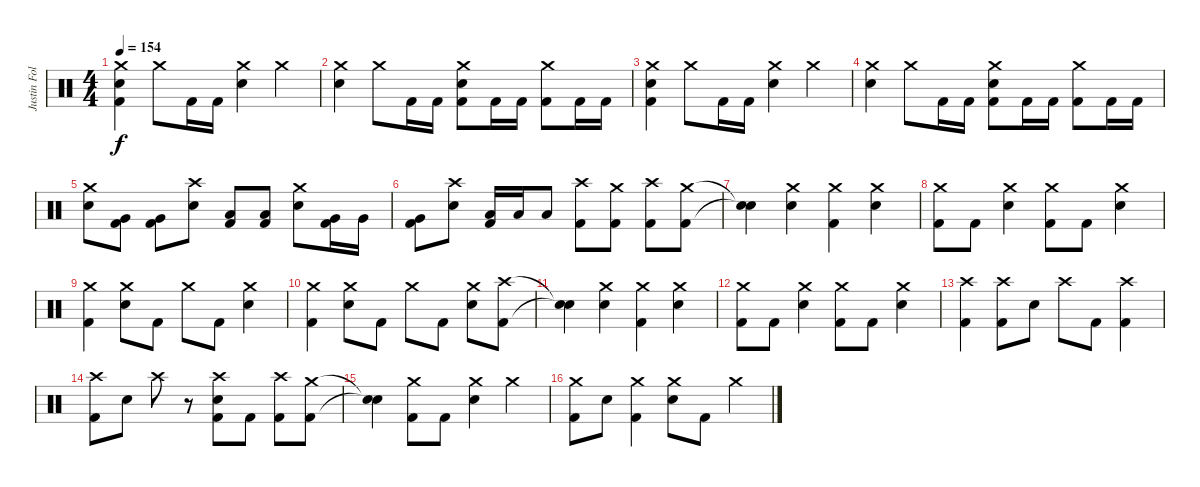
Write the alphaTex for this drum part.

\track ("Justin Foley" "Justin Fol") {instrument percussion}
\staff {score}
\articulation defaults
\ts (4 4)
\tempo 154
\clef neutral
\ks c
("Crash medium (hit)" "Electric Snare (hit)" "Kick (hit) 2").4{dy f} "Crash medium (hit)".8 "Kick (hit) 2".16 "Kick (hit) 2".16 ("Crash medium (hit)" "Electric Snare (hit)").4 "Crash medium (hit)".4 |
("Crash medium (hit)" "Electric Snare (hit)").4 "Crash medium (hit)".8 "Kick (hit) 2".16 "Kick (hit) 2".16 ("Crash medium (hit)" "Electric Snare (hit)" "Kick (hit) 2").8 "Kick (hit) 2".16 "Kick (hit) 2".16 ("Crash medium (hit)" "Kick (hit) 2").8 "Kick (hit) 2".16 "Kick (hit) 2".16 |
("Crash medium (hit)" "Electric Snare (hit)" "Kick (hit) 2").4 "Crash medium (hit)".8 "Kick (hit) 2".16 "Kick (hit) 2".16 ("Crash medium (hit)" "Electric Snare (hit)").4 "Crash medium (hit)".4 |
("Crash medium (hit)" "Electric Snare (hit)").4 "Crash medium (hit)".8 "Kick (hit) 2".16 "Kick (hit) 2".16 ("Crash medium (hit)" "Electric Snare (hit)" "Kick (hit) 2").8 "Kick (hit) 2".16 "Kick (hit) 2".16 ("Crash medium (hit)" "Kick (hit) 2").8 "Kick (hit) 2".16 "Kick (hit) 2".16 |
("Crash medium (hit)" "Electric Snare (hit)").8 ("Very Low Tom (hit)" "Kick (hit) 2").8 ("Very Low Tom (hit)" "Kick (hit) 2").8 ("Crash high (hit)" "Electric Snare (hit)").8 ("Low Floor Tom (hit)" "Kick (hit) 2").8 ("Low Floor Tom (hit)" "Kick (hit) 2").8 ("Crash medium (hit)" "Electric Snare (hit)").8 ("Very Low Tom (hit)" "Kick (hit) 2").16 "Very Low Tom (hit)".16 |
("Very Low Tom (hit)" "Kick (hit) 2").8 ("Crash high (hit)" "Electric Snare (hit)").8 ("Low Floor Tom (hit)" "Kick (hit) 2").16 "Low Floor Tom (hit)".16 "Low Floor Tom (hit)".8 ("Crash high (hit)" "Kick (hit) 2").8 ("Crash medium (hit)" "Kick (hit) 2").8 ("Crash high (hit)" "Kick (hit) 2").8 ("Crash medium (hit)" "Kick (hit) 2").8 |
("Snare (hit)"{t} "Snare (hit)"{t}).4 ("Crash medium (hit)" "Electric Snare (hit)").4 ("Crash medium (hit)" "Kick (hit) 2").4 ("Crash medium (hit)" "Electric Snare (hit)").4 |
("Crash medium (hit)" "Kick (hit) 2").8 "Kick (hit) 2".8 ("Crash medium (hit)" "Electric Snare (hit)").4 ("Crash medium (hit)" "Kick (hit) 2").8 "Kick (hit) 2".8 ("Crash medium (hit)" "Electric Snare (hit)").4 |
("Crash medium (hit)" "Kick (hit) 2").4 ("Crash medium (hit)" "Electric Snare (hit)").8 "Kick (hit) 2".8 "Crash medium (hit)".8 "Kick (hit) 2".8 ("Crash medium (hit)" "Electric Snare (hit)").4 |
("Crash medium (hit)" "Kick (hit) 2").4 ("Crash medium (hit)" "Electric Snare (hit)").8 "Kick (hit) 2".8 "Crash medium (hit)".8 "Kick (hit) 2".8 ("Crash medium (hit)" "Electric Snare (hit)").8 ("Crash high (hit)" "Kick (hit) 2").8 |
("Snare (hit)"{t} "Snare (hit)"{t}).4 ("Crash medium (hit)" "Electric Snare (hit)").4 ("Crash medium (hit)" "Kick (hit) 2").4 ("Crash medium (hit)" "Electric Snare (hit)").4 |
("Crash medium (hit)" "Kick (hit) 2").8 "Kick (hit) 2".8 ("Crash medium (hit)" "Electric Snare (hit)").4 ("Crash medium (hit)" "Kick (hit) 2").8 "Kick (hit) 2".8 ("Crash medium (hit)" "Electric Snare (hit)").4 |
("Crash high (hit)" "Kick (hit) 2").4 ("Crash high (hit)" "Kick (hit) 2").8 "Electric Snare (hit)".8 "Crash high (hit)".8 "Kick (hit) 2".8 ("Crash high (hit)" "Kick (hit) 2").4 |
("Crash high (hit)" "Kick (hit) 2").8 "Electric Snare (hit)".8 "Crash high (hit)".8 r.8 ("Crash high (hit)" "Electric Snare (hit)" "Kick (hit) 2").8 "Kick (hit) 2".8 ("Crash high (hit)" "Kick (hit) 2").8 ("Crash medium (hit)" "Kick (hit) 2").8 |
("Snare (hit)"{t} "Snare (hit)"{t}).4 ("Crash medium (hit)" "Kick (hit) 2").8 "Kick (hit) 2".8 ("Crash medium (hit)" "Electric Snare (hit)").4 "Crash medium (hit)".4 |
("Crash medium (hit)" "Kick (hit) 2").8 "Electric Snare (hit)".8 ("Crash medium (hit)" "Kick (hit) 2").4 ("Crash medium (hit)" "Electric Snare (hit)").8 "Kick (hit) 2".8 "Crash medium (hit)".4
